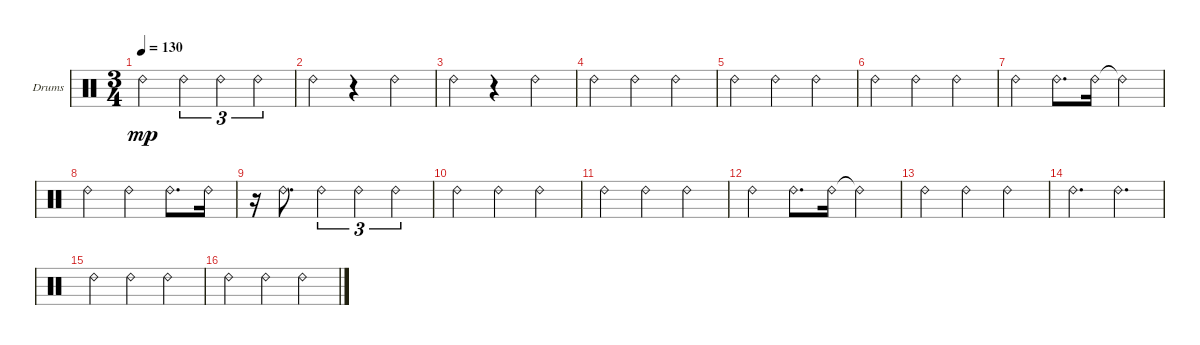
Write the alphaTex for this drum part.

\bracketExtendMode groupsimilarinstruments
\firstSystemTrackNameOrientation horizontal
\otherSystemsTrackNameOrientation horizontal
\track ("OH" "Drums") {instrument percussion}
\staff {score}
\articulation defaults
\ts (3 4)
\tempo 130
\clef neutral
\ks c "Ride (bell) 2".4{dy mp} "Ride (bell) 2".4{tu (3 2)} "Ride (bell) 2".4{tu (3 2)} "Ride (bell) 2".4{tu (3 2)}
|
"Ride (bell) 2".4 r.4 "Ride (bell) 2".4 |
"Ride (bell) 2".4 r.4 "Ride (bell) 2".4 |
"Ride (bell) 2".4 "Ride (bell) 2".4 "Ride (bell) 2".4 |
"Ride (bell) 2".4 "Ride (bell) 2".4 "Ride (bell) 2".4 |
"Ride (bell) 2".4 "Ride (bell) 2".4 "Ride (bell) 2".4 |
"Ride (bell) 2".4 "Ride (bell) 2".8{d} "Ride (bell) 2".16 "Ride (bell) 2"{t}.4 |
"Ride (bell) 2".4 "Ride (bell) 2".4 "Ride (bell) 2".8{d} "Ride (bell) 2".16 |
r.16 "Ride (bell) 2".8{d} "Ride (bell) 2".4{tu (3 2)} "Ride (bell) 2".4{tu (3 2)} "Ride (bell) 2".4{tu (3 2)} |
"Ride (bell) 2".4 "Ride (bell) 2".4 "Ride (bell) 2".4 |
"Ride (bell) 2".4 "Ride (bell) 2".4 "Ride (bell) 2".4 |
"Ride (bell) 2".4 "Ride (bell) 2".8{d} "Ride (bell) 2".16 "Ride (bell) 2"{t}.4 |
"Ride (bell) 2".4 "Ride (bell) 2".4 "Ride (bell) 2".4 |
"Ride (bell) 2".4{d} "Ride (bell) 2".4{d} |
"Ride (bell) 2".4 "Ride (bell) 2".4 "Ride (bell) 2".4 |
"Ride (bell) 2".4 "Ride (bell) 2".4 "Ride (bell) 2".4
